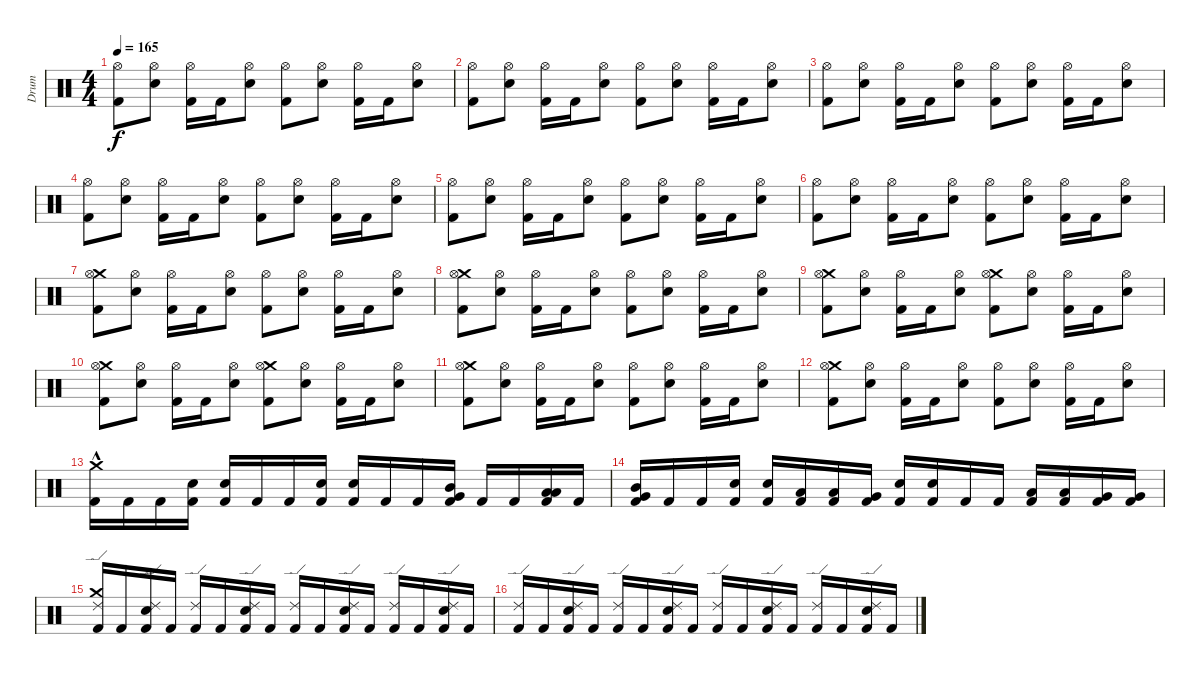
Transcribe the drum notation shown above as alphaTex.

\track ("Drum" "Drum") {instrument percussion}
\staff {score}
\articulation defaults
\ts (4 4)
\tempo 165
\clef neutral
\ks c
("Hi-Hat (open)" "Kick (hit) 2").8{dy f} ("Hi-Hat (open)" "Electric Snare (hit)").8 ("Hi-Hat (open)" "Kick (hit) 2").16 "Kick (hit) 2".16 ("Hi-Hat (open)" "Electric Snare (hit)").8 ("Hi-Hat (open)" "Kick (hit) 2").8 ("Hi-Hat (open)" "Electric Snare (hit)").8 ("Hi-Hat (open)" "Kick (hit) 2").16 "Kick (hit) 2".16 ("Hi-Hat (open)" "Electric Snare (hit)").8 |
("Hi-Hat (open)" "Kick (hit) 2").8 ("Hi-Hat (open)" "Electric Snare (hit)").8 ("Hi-Hat (open)" "Kick (hit) 2").16 "Kick (hit) 2".16 ("Hi-Hat (open)" "Electric Snare (hit)").8 ("Hi-Hat (open)" "Kick (hit) 2").8 ("Hi-Hat (open)" "Electric Snare (hit)").8 ("Hi-Hat (open)" "Kick (hit) 2").16 "Kick (hit) 2".16 ("Hi-Hat (open)" "Electric Snare (hit)").8 |
("Hi-Hat (open)" "Kick (hit) 2").8 ("Hi-Hat (open)" "Electric Snare (hit)").8 ("Hi-Hat (open)" "Kick (hit) 2").16 "Kick (hit) 2".16 ("Hi-Hat (open)" "Electric Snare (hit)").8 ("Hi-Hat (open)" "Kick (hit) 2").8 ("Hi-Hat (open)" "Electric Snare (hit)").8 ("Hi-Hat (open)" "Kick (hit) 2").16 "Kick (hit) 2".16 ("Hi-Hat (open)" "Electric Snare (hit)").8 |
("Hi-Hat (open)" "Kick (hit) 2").8 ("Hi-Hat (open)" "Electric Snare (hit)").8 ("Hi-Hat (open)" "Kick (hit) 2").16 "Kick (hit) 2".16 ("Hi-Hat (open)" "Electric Snare (hit)").8 ("Hi-Hat (open)" "Kick (hit) 2").8 ("Hi-Hat (open)" "Electric Snare (hit)").8 ("Hi-Hat (open)" "Kick (hit) 2").16 "Kick (hit) 2".16 ("Hi-Hat (open)" "Electric Snare (hit)").8 |
("Hi-Hat (open)" "Kick (hit) 2").8 ("Hi-Hat (open)" "Electric Snare (hit)").8 ("Hi-Hat (open)" "Kick (hit) 2").16 "Kick (hit) 2".16 ("Hi-Hat (open)" "Electric Snare (hit)").8 ("Hi-Hat (open)" "Kick (hit) 2").8 ("Hi-Hat (open)" "Electric Snare (hit)").8 ("Hi-Hat (open)" "Kick (hit) 2").16 "Kick (hit) 2".16 ("Hi-Hat (open)" "Electric Snare (hit)").8 |
("Hi-Hat (open)" "Kick (hit) 2").8 ("Hi-Hat (open)" "Electric Snare (hit)").8 ("Hi-Hat (open)" "Kick (hit) 2").16 "Kick (hit) 2".16 ("Hi-Hat (open)" "Electric Snare (hit)").8 ("Hi-Hat (open)" "Kick (hit) 2").8 ("Hi-Hat (open)" "Electric Snare (hit)").8 ("Hi-Hat (open)" "Kick (hit) 2").16 "Kick (hit) 2".16 ("Hi-Hat (open)" "Electric Snare (hit)").8 |
("Crash medium (hit)" "Hi-Hat (open)" "Kick (hit) 2").8 ("Hi-Hat (open)" "Electric Snare (hit)").8 ("Hi-Hat (open)" "Kick (hit) 2").16 "Kick (hit) 2".16 ("Hi-Hat (open)" "Electric Snare (hit)").8 ("Hi-Hat (open)" "Kick (hit) 2").8 ("Hi-Hat (open)" "Electric Snare (hit)").8 ("Hi-Hat (open)" "Kick (hit) 2").16 "Kick (hit) 2".16 ("Hi-Hat (open)" "Electric Snare (hit)").8 |
("Crash medium (hit)" "Hi-Hat (open)" "Kick (hit) 2").8 ("Hi-Hat (open)" "Electric Snare (hit)").8 ("Hi-Hat (open)" "Kick (hit) 2").16 "Kick (hit) 2".16 ("Hi-Hat (open)" "Electric Snare (hit)").8 ("Hi-Hat (open)" "Kick (hit) 2").8 ("Hi-Hat (open)" "Electric Snare (hit)").8 ("Hi-Hat (open)" "Kick (hit) 2").16 "Kick (hit) 2".16 ("Hi-Hat (open)" "Electric Snare (hit)").8 |
("Crash medium (hit)" "Hi-Hat (open)" "Kick (hit) 2").8 ("Hi-Hat (open)" "Electric Snare (hit)").8 ("Hi-Hat (open)" "Kick (hit) 2").16 "Kick (hit) 2".16 ("Hi-Hat (open)" "Electric Snare (hit)").8 ("Crash medium (hit)" "Hi-Hat (open)" "Kick (hit) 2").8 ("Hi-Hat (open)" "Electric Snare (hit)").8 ("Hi-Hat (open)" "Kick (hit) 2").16 "Kick (hit) 2".16 ("Hi-Hat (open)" "Electric Snare (hit)").8 |
("Crash medium (hit)" "Hi-Hat (open)" "Kick (hit) 2").8 ("Hi-Hat (open)" "Electric Snare (hit)").8 ("Hi-Hat (open)" "Kick (hit) 2").16 "Kick (hit) 2".16 ("Hi-Hat (open)" "Electric Snare (hit)").8 ("Crash medium (hit)" "Hi-Hat (open)" "Kick (hit) 2").8 ("Hi-Hat (open)" "Electric Snare (hit)").8 ("Hi-Hat (open)" "Kick (hit) 2").16 "Kick (hit) 2".16 ("Hi-Hat (open)" "Electric Snare (hit)").8 |
("Crash medium (hit)" "Hi-Hat (open)" "Kick (hit) 2").8 ("Hi-Hat (open)" "Electric Snare (hit)").8 ("Hi-Hat (open)" "Kick (hit) 2").16 "Kick (hit) 2".16 ("Hi-Hat (open)" "Electric Snare (hit)").8 ("Hi-Hat (open)" "Kick (hit) 2").8 ("Hi-Hat (open)" "Electric Snare (hit)").8 ("Hi-Hat (open)" "Kick (hit) 2").16 "Kick (hit) 2".16 ("Hi-Hat (open)" "Electric Snare (hit)").8 |
("Crash medium (hit)" "Hi-Hat (open)" "Kick (hit) 2").8 ("Hi-Hat (open)" "Electric Snare (hit)").8 ("Hi-Hat (open)" "Kick (hit) 2").16 "Kick (hit) 2".16 ("Hi-Hat (open)" "Electric Snare (hit)").8 ("Hi-Hat (open)" "Kick (hit) 2").8 ("Hi-Hat (open)" "Electric Snare (hit)").8 ("Hi-Hat (open)" "Kick (hit) 2").16 "Kick (hit) 2".16 ("Hi-Hat (open)" "Electric Snare (hit)").8 |
("Kick (hit) 2" "Crash medium (hit)"{hac}).16 "Kick (hit) 2".16 "Kick (hit) 2".16 ("Electric Snare (hit)" "Kick (hit) 2").16 ("Electric Snare (hit)" "Kick (hit) 2").16 "Kick (hit) 2".16 "Kick (hit) 2".16 ("Electric Snare (hit)" "Kick (hit) 2").16 ("Electric Snare (hit)" "Kick (hit) 2").16 "Kick (hit) 2".16 "Kick (hit) 2".16 ("Mid Tom (hit)" "Very Low Tom (hit)" "Kick (hit) 2").16 "Kick (hit) 2".16 "Kick (hit) 2".16 ("Low Floor Tom (hit)" "Low Tom (hit)" "Kick (hit) 2").16 "Kick (hit) 2".16 |
("Mid Tom (hit)" "Very Low Tom (hit)" "Kick (hit) 2").16 "Kick (hit) 2".16 "Kick (hit) 2".16 ("Electric Snare (hit)" "Kick (hit) 2").16 ("Electric Snare (hit)" "Kick (hit) 2").16 ("Low Tom (hit)" "Kick (hit) 2").16 ("Low Tom (hit)" "Kick (hit) 2").16 ("Very Low Tom (hit)" "Kick (hit) 2").16 ("Electric Snare (hit)" "Kick (hit) 2").16 ("Electric Snare (hit)" "Kick (hit) 2").16 "Kick (hit) 2".16 "Kick (hit) 2".16 ("Low Tom (hit)" "Kick (hit) 2").16 ("Low Tom (hit)" "Kick (hit) 2").16 ("Very Low Tom (hit)" "Kick (hit) 2").16 ("Very Low Tom (hit)" "Kick (hit) 2").16 |
("Crash medium (hit)" "Ride (edge) 2" "Kick (hit) 2").16 "Kick (hit) 2".16 ("Electric Snare (hit)" "Ride (edge) 2" "Kick (hit) 2").16 "Kick (hit) 2".16 ("Ride (edge) 2" "Kick (hit) 2").16 "Kick (hit) 2".16 ("Electric Snare (hit)" "Ride (edge) 2" "Kick (hit) 2").16 "Kick (hit) 2".16 ("Ride (edge) 2" "Kick (hit) 2").16 "Kick (hit) 2".16 ("Electric Snare (hit)" "Ride (edge) 2" "Kick (hit) 2").16 "Kick (hit) 2".16 ("Ride (edge) 2" "Kick (hit) 2").16 "Kick (hit) 2".16 ("Electric Snare (hit)" "Ride (edge) 2" "Kick (hit) 2").16 "Kick (hit) 2".16 |
("Ride (edge) 2" "Kick (hit) 2").16 "Kick (hit) 2".16 ("Electric Snare (hit)" "Ride (edge) 2" "Kick (hit) 2").16 "Kick (hit) 2".16 ("Ride (edge) 2" "Kick (hit) 2").16 "Kick (hit) 2".16 ("Electric Snare (hit)" "Ride (edge) 2" "Kick (hit) 2").16 "Kick (hit) 2".16 ("Ride (edge) 2" "Kick (hit) 2").16 "Kick (hit) 2".16 ("Electric Snare (hit)" "Ride (edge) 2" "Kick (hit) 2").16 "Kick (hit) 2".16 ("Ride (edge) 2" "Kick (hit) 2").16 "Kick (hit) 2".16 ("Electric Snare (hit)" "Ride (edge) 2" "Kick (hit) 2").16 "Kick (hit) 2".16
